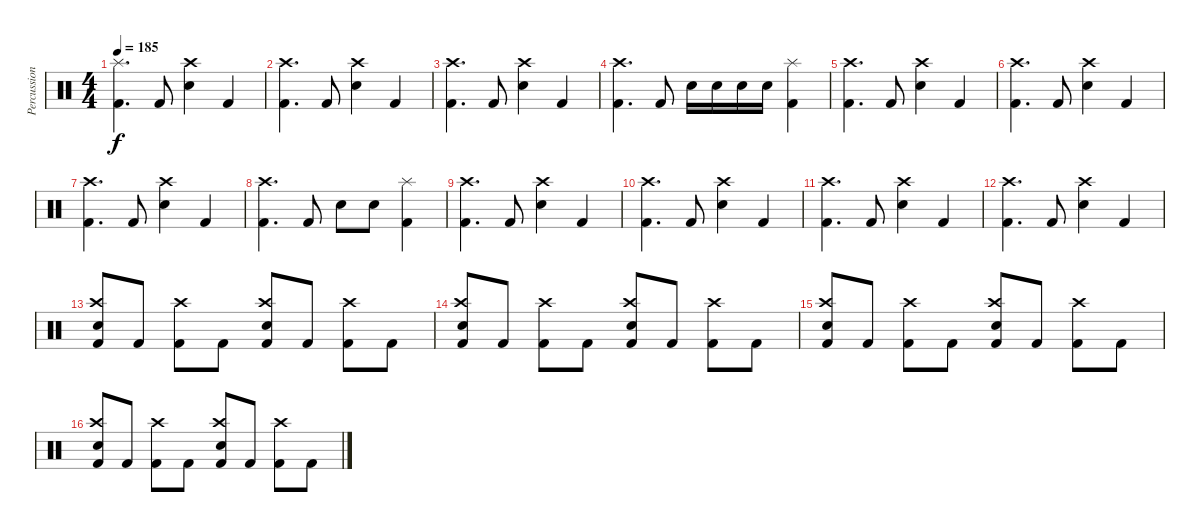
\track ("Percussion" "Percussion") {instrument percussion}
\staff {score}
\articulation defaults
\ts (4 4)
\tempo 185
\clef neutral
\ks c
("Splash (hit)" "Kick (hit) 2").4{d dy f} "Kick (hit) 2".8 ("Crash high (hit)" "Snare (hit) 2").4 "Kick (hit) 2".4 |
("Crash high (hit)" "Kick (hit) 2").4{d} "Kick (hit) 2".8 ("Crash high (hit)" "Snare (hit) 2").4 "Kick (hit) 2".4 |
("Crash high (hit)" "Kick (hit) 2").4{d} "Kick (hit) 2".8 ("Crash high (hit)" "Snare (hit) 2").4 "Kick (hit) 2".4 |
("Crash high (hit)" "Kick (hit) 2").4{d} "Kick (hit) 2".8 "Snare (hit) 2".16 "Snare (hit) 2".16 "Snare (hit) 2".16 "Snare (hit) 2".16 ("Splash (hit)" "Kick (hit) 2").4 |
("Crash high (hit)" "Kick (hit) 2").4{d} "Kick (hit) 2".8 ("Crash high (hit)" "Snare (hit) 2").4 "Kick (hit) 2".4 |
("Crash high (hit)" "Kick (hit) 2").4{d} "Kick (hit) 2".8 ("Crash high (hit)" "Snare (hit) 2").4 "Kick (hit) 2".4 |
("Crash high (hit)" "Kick (hit) 2").4{d} "Kick (hit) 2".8 ("Crash high (hit)" "Snare (hit) 2").4 "Kick (hit) 2".4 |
("Crash high (hit)" "Kick (hit) 2").4{d} "Kick (hit) 2".8 "Snare (hit) 2".8 "Snare (hit) 2".8 ("Splash (hit)" "Kick (hit) 2").4 |
("Crash high (hit)" "Kick (hit) 2").4{d} "Kick (hit) 2".8 ("Crash high (hit)" "Snare (hit) 2").4 "Kick (hit) 2".4 |
("Crash high (hit)" "Kick (hit) 2").4{d} "Kick (hit) 2".8 ("Crash high (hit)" "Snare (hit) 2").4 "Kick (hit) 2".4 |
("Crash high (hit)" "Kick (hit) 2").4{d} "Kick (hit) 2".8 ("Crash high (hit)" "Snare (hit) 2").4 "Kick (hit) 2".4 |
("Crash high (hit)" "Kick (hit) 2").4{d} "Kick (hit) 2".8 ("Crash high (hit)" "Snare (hit) 2").4 "Kick (hit) 2".4 |
("Crash high (hit)" "Snare (hit) 2" "Kick (hit) 2").8 "Kick (hit) 2".8 ("Crash high (hit)" "Kick (hit) 2").8 "Kick (hit) 2".8 ("Crash high (hit)" "Snare (hit) 2" "Kick (hit) 2").8 "Kick (hit) 2".8 ("Crash high (hit)" "Kick (hit) 2").8 "Kick (hit) 2".8 |
("Crash high (hit)" "Snare (hit) 2" "Kick (hit) 2").8 "Kick (hit) 2".8 ("Crash high (hit)" "Kick (hit) 2").8 "Kick (hit) 2".8 ("Crash high (hit)" "Snare (hit) 2" "Kick (hit) 2").8 "Kick (hit) 2".8 ("Crash high (hit)" "Kick (hit) 2").8 "Kick (hit) 2".8 |
("Crash high (hit)" "Snare (hit) 2" "Kick (hit) 2").8 "Kick (hit) 2".8 ("Crash high (hit)" "Kick (hit) 2").8 "Kick (hit) 2".8 ("Crash high (hit)" "Snare (hit) 2" "Kick (hit) 2").8 "Kick (hit) 2".8 ("Crash high (hit)" "Kick (hit) 2").8 "Kick (hit) 2".8 |
("Crash high (hit)" "Snare (hit) 2" "Kick (hit) 2").8 "Kick (hit) 2".8 ("Crash high (hit)" "Kick (hit) 2").8 "Kick (hit) 2".8 ("Crash high (hit)" "Snare (hit) 2" "Kick (hit) 2").8 "Kick (hit) 2".8 ("Crash high (hit)" "Kick (hit) 2").8 "Kick (hit) 2".8
